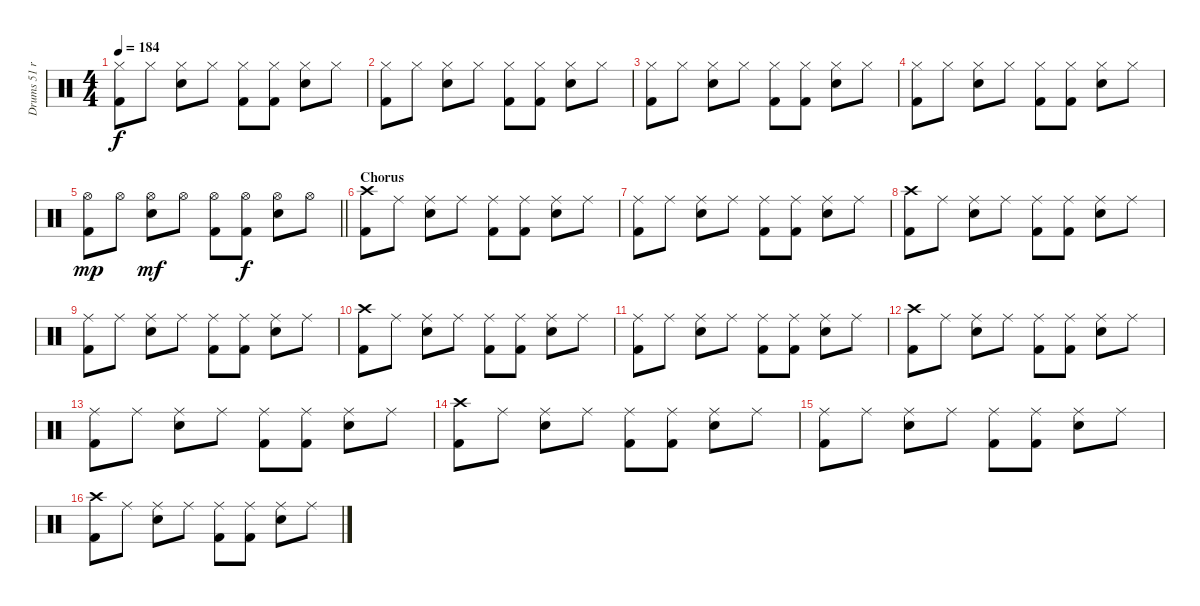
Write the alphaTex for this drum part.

\track ("Drums 51 ride" "Drums 51 r") {mute instrument percussion}
\staff {score}
\articulation defaults
\ts (4 4)
\tempo 184
\clef neutral
\ks c
("Hi-Hat (closed)" "Kick (hit) 2").8{dy f} "Hi-Hat (closed)".8 ("Hi-Hat (closed)" "Snare (hit) 2").8 "Hi-Hat (closed)".8 ("Hi-Hat (closed)" "Kick (hit) 2").8 ("Hi-Hat (closed)" "Kick (hit) 2").8 ("Hi-Hat (closed)" "Snare (hit) 2").8 "Hi-Hat (closed)".8 |
("Hi-Hat (closed)" "Kick (hit) 2").8 "Hi-Hat (closed)".8 ("Hi-Hat (closed)" "Snare (hit) 2").8 "Hi-Hat (closed)".8 ("Hi-Hat (closed)" "Kick (hit) 2").8 ("Hi-Hat (closed)" "Kick (hit) 2").8 ("Hi-Hat (closed)" "Snare (hit) 2").8 "Hi-Hat (closed)".8 |
("Hi-Hat (closed)" "Kick (hit) 2").8 "Hi-Hat (closed)".8 ("Hi-Hat (closed)" "Snare (hit) 2").8 "Hi-Hat (closed)".8 ("Hi-Hat (closed)" "Kick (hit) 2").8 ("Hi-Hat (closed)" "Kick (hit) 2").8 ("Hi-Hat (closed)" "Snare (hit) 2").8 "Hi-Hat (closed)".8 |
("Hi-Hat (closed)" "Kick (hit) 2").8 "Hi-Hat (closed)".8 ("Hi-Hat (closed)" "Snare (hit) 2").8 "Hi-Hat (closed)".8 ("Hi-Hat (closed)" "Kick (hit) 2").8 ("Hi-Hat (closed)" "Kick (hit) 2").8 ("Hi-Hat (closed)" "Snare (hit) 2").8 "Hi-Hat (closed)".8 |
\barLineRight lightlight
("Hi-Hat (open)" "Kick (hit) 2").8{dy mp} "Hi-Hat (open)".8 ("Hi-Hat (open)" "Snare (hit) 2").8{dy mf} "Hi-Hat (open)".8 ("Hi-Hat (open)" "Kick (hit) 2").8 ("Hi-Hat (open)" "Kick (hit) 2").8{dy f} ("Hi-Hat (open)" "Snare (hit) 2").8 "Hi-Hat (open)".8 |
\section ("" "Chorus")
("Crash high (hit)" "Kick (hit) 2").8 "Ride (middle)".8 ("Ride (middle)" "Snare (hit) 2").8 "Ride (middle)".8 ("Ride (middle)" "Kick (hit) 2").8 ("Ride (middle)" "Kick (hit) 2").8 ("Ride (middle)" "Snare (hit) 2").8 "Ride (middle)".8 |
("Ride (middle)" "Kick (hit) 2").8 "Ride (middle)".8 ("Ride (middle)" "Snare (hit) 2").8 "Ride (middle)".8 ("Ride (middle)" "Kick (hit) 2").8 ("Ride (middle)" "Kick (hit) 2").8 ("Ride (middle)" "Snare (hit) 2").8 "Ride (middle)".8 |
("Crash high (hit)" "Kick (hit) 2").8 "Ride (middle)".8 ("Ride (middle)" "Snare (hit) 2").8 "Ride (middle)".8 ("Ride (middle)" "Kick (hit) 2").8 ("Ride (middle)" "Kick (hit) 2").8 ("Ride (middle)" "Snare (hit) 2").8 "Ride (middle)".8 |
("Ride (middle)" "Kick (hit) 2").8 "Ride (middle)".8 ("Ride (middle)" "Snare (hit) 2").8 "Ride (middle)".8 ("Ride (middle)" "Kick (hit) 2").8 ("Ride (middle)" "Kick (hit) 2").8 ("Ride (middle)" "Snare (hit) 2").8 "Ride (middle)".8 |
("Crash high (hit)" "Kick (hit) 2").8 "Ride (middle)".8 ("Ride (middle)" "Snare (hit) 2").8 "Ride (middle)".8 ("Ride (middle)" "Kick (hit) 2").8 ("Ride (middle)" "Kick (hit) 2").8 ("Ride (middle)" "Snare (hit) 2").8 "Ride (middle)".8 |
("Ride (middle)" "Kick (hit) 2").8 "Ride (middle)".8 ("Ride (middle)" "Snare (hit) 2").8 "Ride (middle)".8 ("Ride (middle)" "Kick (hit) 2").8 ("Ride (middle)" "Kick (hit) 2").8 ("Ride (middle)" "Snare (hit) 2").8 "Ride (middle)".8 |
("Crash high (hit)" "Kick (hit) 2").8 "Ride (middle)".8 ("Ride (middle)" "Snare (hit) 2").8 "Ride (middle)".8 ("Ride (middle)" "Kick (hit) 2").8 ("Ride (middle)" "Kick (hit) 2").8 ("Ride (middle)" "Snare (hit) 2").8 "Ride (middle)".8 |
("Ride (middle)" "Kick (hit) 2").8 "Ride (middle)".8 ("Ride (middle)" "Snare (hit) 2").8 "Ride (middle)".8 ("Ride (middle)" "Kick (hit) 2").8 ("Ride (middle)" "Kick (hit) 2").8 ("Ride (middle)" "Snare (hit) 2").8 "Ride (middle)".8 |
("Crash high (hit)" "Kick (hit) 2").8 "Ride (middle)".8 ("Ride (middle)" "Snare (hit) 2").8 "Ride (middle)".8 ("Ride (middle)" "Kick (hit) 2").8 ("Ride (middle)" "Kick (hit) 2").8 ("Ride (middle)" "Snare (hit) 2").8 "Ride (middle)".8 |
("Ride (middle)" "Kick (hit) 2").8 "Ride (middle)".8 ("Ride (middle)" "Snare (hit) 2").8 "Ride (middle)".8 ("Ride (middle)" "Kick (hit) 2").8 ("Ride (middle)" "Kick (hit) 2").8 ("Ride (middle)" "Snare (hit) 2").8 "Ride (middle)".8 |
("Crash high (hit)" "Kick (hit) 2").8 "Ride (middle)".8 ("Ride (middle)" "Snare (hit) 2").8 "Ride (middle)".8 ("Ride (middle)" "Kick (hit) 2").8 ("Ride (middle)" "Kick (hit) 2").8 ("Ride (middle)" "Snare (hit) 2").8 "Ride (middle)".8
